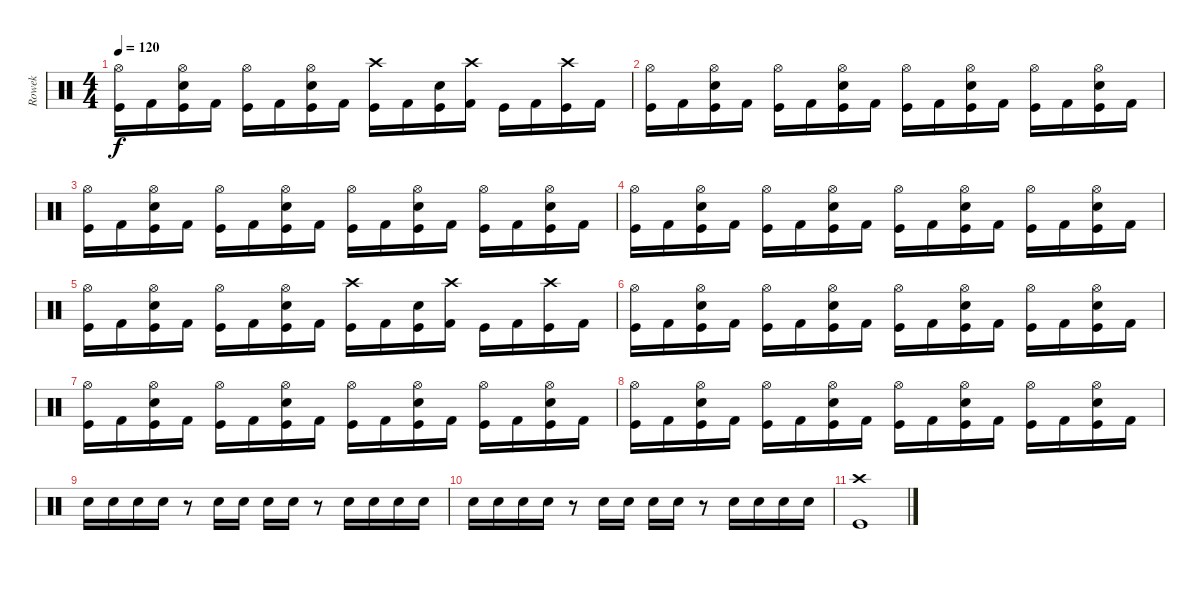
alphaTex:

\track ("Rowek" "Rowek") {instrument percussion}
\staff {score}
\articulation defaults
\ts (4 4)
\tempo 120
\clef neutral
\ks c
("Hi-Hat (open)" "Kick (hit)").16{dy f} "Kick (hit) 2".16 ("Hi-Hat (open)" "Snare (hit) 2" "Kick (hit)").16 "Kick (hit) 2".16 ("Hi-Hat (open)" "Kick (hit)").16 "Kick (hit) 2".16 ("Hi-Hat (open)" "Snare (hit) 2" "Kick (hit)").16 "Kick (hit) 2".16 ("Crash high (hit)" "Kick (hit)").16 "Kick (hit) 2".16 ("Snare (hit) 2" "Kick (hit)").16 ("Crash high (hit)" "Kick (hit) 2").16 "Kick (hit)".16 "Kick (hit) 2".16 ("Crash high (hit)" "Kick (hit)").16 "Kick (hit) 2".16 |
("Hi-Hat (open)" "Kick (hit)").16 "Kick (hit) 2".16 ("Hi-Hat (open)" "Snare (hit) 2" "Kick (hit)").16 "Kick (hit) 2".16 ("Hi-Hat (open)" "Kick (hit)").16 "Kick (hit) 2".16 ("Hi-Hat (open)" "Snare (hit) 2" "Kick (hit)").16 "Kick (hit) 2".16 ("Hi-Hat (open)" "Kick (hit)").16 "Kick (hit) 2".16 ("Hi-Hat (open)" "Snare (hit) 2" "Kick (hit)").16 "Kick (hit) 2".16 ("Hi-Hat (open)" "Kick (hit)").16 "Kick (hit) 2".16 ("Hi-Hat (open)" "Snare (hit) 2" "Kick (hit)").16 "Kick (hit) 2".16 |
("Hi-Hat (open)" "Kick (hit)").16 "Kick (hit) 2".16 ("Hi-Hat (open)" "Snare (hit) 2" "Kick (hit)").16 "Kick (hit) 2".16 ("Hi-Hat (open)" "Kick (hit)").16 "Kick (hit) 2".16 ("Hi-Hat (open)" "Snare (hit) 2" "Kick (hit)").16 "Kick (hit) 2".16 ("Hi-Hat (open)" "Kick (hit)").16 "Kick (hit) 2".16 ("Hi-Hat (open)" "Snare (hit) 2" "Kick (hit)").16 "Kick (hit) 2".16 ("Hi-Hat (open)" "Kick (hit)").16 "Kick (hit) 2".16 ("Hi-Hat (open)" "Snare (hit) 2" "Kick (hit)").16 "Kick (hit) 2".16 |
("Hi-Hat (open)" "Kick (hit)").16 "Kick (hit) 2".16 ("Hi-Hat (open)" "Snare (hit) 2" "Kick (hit)").16 "Kick (hit) 2".16 ("Hi-Hat (open)" "Kick (hit)").16 "Kick (hit) 2".16 ("Hi-Hat (open)" "Snare (hit) 2" "Kick (hit)").16 "Kick (hit) 2".16 ("Hi-Hat (open)" "Kick (hit)").16 "Kick (hit) 2".16 ("Hi-Hat (open)" "Snare (hit) 2" "Kick (hit)").16 "Kick (hit) 2".16 ("Hi-Hat (open)" "Kick (hit)").16 "Kick (hit) 2".16 ("Hi-Hat (open)" "Snare (hit) 2" "Kick (hit)").16 "Kick (hit) 2".16 |
("Hi-Hat (open)" "Kick (hit)").16 "Kick (hit) 2".16 ("Hi-Hat (open)" "Snare (hit) 2" "Kick (hit)").16 "Kick (hit) 2".16 ("Hi-Hat (open)" "Kick (hit)").16 "Kick (hit) 2".16 ("Hi-Hat (open)" "Snare (hit) 2" "Kick (hit)").16 "Kick (hit) 2".16 ("Crash high (hit)" "Kick (hit)").16 "Kick (hit) 2".16 ("Snare (hit) 2" "Kick (hit)").16 ("Crash high (hit)" "Kick (hit) 2").16 "Kick (hit)".16 "Kick (hit) 2".16 ("Crash high (hit)" "Kick (hit)").16 "Kick (hit) 2".16 |
("Hi-Hat (open)" "Kick (hit)").16 "Kick (hit) 2".16 ("Hi-Hat (open)" "Snare (hit) 2" "Kick (hit)").16 "Kick (hit) 2".16 ("Hi-Hat (open)" "Kick (hit)").16 "Kick (hit) 2".16 ("Hi-Hat (open)" "Snare (hit) 2" "Kick (hit)").16 "Kick (hit) 2".16 ("Hi-Hat (open)" "Kick (hit)").16 "Kick (hit) 2".16 ("Hi-Hat (open)" "Snare (hit) 2" "Kick (hit)").16 "Kick (hit) 2".16 ("Hi-Hat (open)" "Kick (hit)").16 "Kick (hit) 2".16 ("Hi-Hat (open)" "Snare (hit) 2" "Kick (hit)").16 "Kick (hit) 2".16 |
("Hi-Hat (open)" "Kick (hit)").16 "Kick (hit) 2".16 ("Hi-Hat (open)" "Snare (hit) 2" "Kick (hit)").16 "Kick (hit) 2".16 ("Hi-Hat (open)" "Kick (hit)").16 "Kick (hit) 2".16 ("Hi-Hat (open)" "Snare (hit) 2" "Kick (hit)").16 "Kick (hit) 2".16 ("Hi-Hat (open)" "Kick (hit)").16 "Kick (hit) 2".16 ("Hi-Hat (open)" "Snare (hit) 2" "Kick (hit)").16 "Kick (hit) 2".16 ("Hi-Hat (open)" "Kick (hit)").16 "Kick (hit) 2".16 ("Hi-Hat (open)" "Snare (hit) 2" "Kick (hit)").16 "Kick (hit) 2".16 |
("Hi-Hat (open)" "Kick (hit)").16 "Kick (hit) 2".16 ("Hi-Hat (open)" "Snare (hit) 2" "Kick (hit)").16 "Kick (hit) 2".16 ("Hi-Hat (open)" "Kick (hit)").16 "Kick (hit) 2".16 ("Hi-Hat (open)" "Snare (hit) 2" "Kick (hit)").16 "Kick (hit) 2".16 ("Hi-Hat (open)" "Kick (hit)").16 "Kick (hit) 2".16 ("Hi-Hat (open)" "Snare (hit) 2" "Kick (hit)").16 "Kick (hit) 2".16 ("Hi-Hat (open)" "Kick (hit)").16 "Kick (hit) 2".16 ("Hi-Hat (open)" "Snare (hit) 2" "Kick (hit)").16 "Kick (hit) 2".16 |
"Electric Snare (hit)".16 "Electric Snare (hit)".16 "Electric Snare (hit)".16 "Electric Snare (hit)".16 r.8 "Electric Snare (hit)".16 "Electric Snare (hit)".16 "Electric Snare (hit)".16 "Electric Snare (hit)".16 r.8 "Electric Snare (hit)".16 "Electric Snare (hit)".16 "Electric Snare (hit)".16 "Electric Snare (hit)".16 |
"Snare (hit) 2".16 "Snare (hit) 2".16 "Snare (hit) 2".16 "Snare (hit) 2".16 r.8 "Snare (hit) 2".16 "Snare (hit) 2".16 "Snare (hit) 2".16 "Snare (hit) 2".16 r.8 "Snare (hit) 2".16 "Snare (hit) 2".16 "Snare (hit) 2".16 "Snare (hit) 2".16 |
("Crash high (hit)" "Kick (hit)").1
